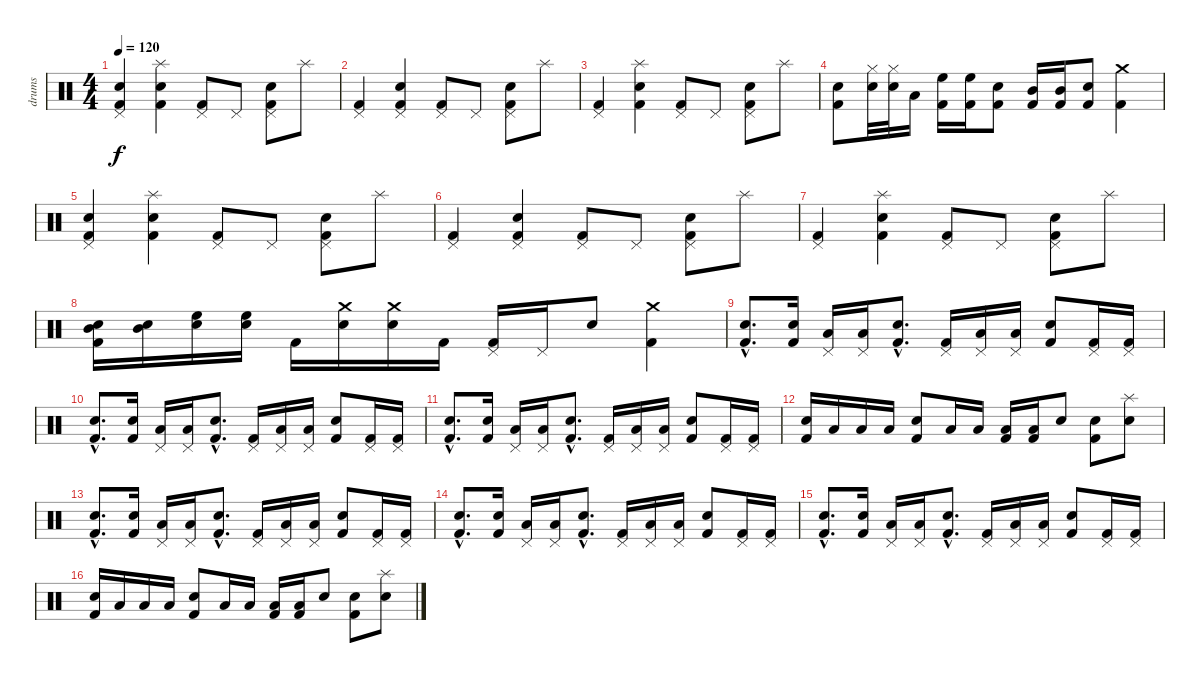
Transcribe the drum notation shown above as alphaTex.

\track ("drums" "drums") {instrument percussion}
\staff {score}
\articulation defaults
\ts (4 4)
\tempo 120
\clef neutral
\ks c
("Pedal Hi-Hat (hit)" "Electric Snare (hit)" "Kick (hit) 2").4{dy f} ("Splash (hit)" "Electric Snare (hit)" "Kick (hit) 2").4 ("Pedal Hi-Hat (hit)" "Kick (hit) 2").8 "Pedal Hi-Hat (hit)".8 ("Pedal Hi-Hat (hit)" "Electric Snare (hit)" "Kick (hit) 2").8 "Splash (hit)".8 |
("Pedal Hi-Hat (hit)" "Kick (hit) 2").4 ("Pedal Hi-Hat (hit)" "Electric Snare (hit)" "Kick (hit) 2").4 ("Pedal Hi-Hat (hit)" "Kick (hit) 2").8 "Pedal Hi-Hat (hit)".8 ("Pedal Hi-Hat (hit)" "Electric Snare (hit)" "Kick (hit) 2").8 "Splash (hit)".8 |
("Pedal Hi-Hat (hit)" "Kick (hit) 2").4 ("Splash (hit)" "Electric Snare (hit)" "Kick (hit) 2").4 ("Pedal Hi-Hat (hit)" "Kick (hit) 2").8 "Pedal Hi-Hat (hit)".8 ("Pedal Hi-Hat (hit)" "Electric Snare (hit)" "Kick (hit) 2").8 "Splash (hit)".8 |
("Electric Snare (hit)" "Kick (hit) 2").8 ("Hi-Hat (closed)" "Electric Snare (hit)").32 ("Hi-Hat (closed)" "Electric Snare (hit)").32 "Low Tom (hit)".16 ("High Floor Tom (hit)" "Kick (hit) 2").16 ("High Floor Tom (hit)" "Kick (hit) 2").16 ("Electric Snare (hit)" "Kick (hit) 2").8 ("Mid Tom (hit)" "Kick (hit) 2").16 ("Mid Tom (hit)" "Kick (hit) 2").16 ("Electric Snare (hit)" "Kick (hit) 2").8 ("Crash medium (hit)" "Kick (hit) 2").4 |
("Pedal Hi-Hat (hit)" "Electric Snare (hit)" "Kick (hit) 2").4 ("Splash (hit)" "Electric Snare (hit)" "Kick (hit) 2").4 ("Pedal Hi-Hat (hit)" "Kick (hit) 2").8 "Pedal Hi-Hat (hit)".8 ("Pedal Hi-Hat (hit)" "Electric Snare (hit)" "Kick (hit) 2").8 "Splash (hit)".8 |
("Pedal Hi-Hat (hit)" "Kick (hit) 2").4 ("Pedal Hi-Hat (hit)" "Electric Snare (hit)" "Kick (hit) 2").4 ("Pedal Hi-Hat (hit)" "Kick (hit) 2").8 "Pedal Hi-Hat (hit)".8 ("Pedal Hi-Hat (hit)" "Electric Snare (hit)" "Kick (hit) 2").8 "Splash (hit)".8 |
("Pedal Hi-Hat (hit)" "Kick (hit) 2").4 ("Splash (hit)" "Electric Snare (hit)" "Kick (hit) 2").4 ("Pedal Hi-Hat (hit)" "Kick (hit) 2").8 "Pedal Hi-Hat (hit)".8 ("Pedal Hi-Hat (hit)" "Electric Snare (hit)" "Kick (hit) 2").8 "Splash (hit)".8 |
("Mid Tom (hit)" "Electric Snare (hit)" "Kick (hit) 2").16 ("Mid Tom (hit)" "Electric Snare (hit)").16 ("High Floor Tom (hit)" "Electric Snare (hit)").16 ("High Floor Tom (hit)" "Electric Snare (hit)").16 "Kick (hit) 2".16 ("Crash medium (hit)" "Electric Snare (hit)").16 ("Crash medium (hit)" "Electric Snare (hit)").16 "Kick (hit) 2".16 ("Pedal Hi-Hat (hit)" "Kick (hit) 2").16 "Pedal Hi-Hat (hit)".16 "Electric Snare (hit)".8 ("Crash medium (hit)" "Kick (hit) 2").4 |
("Electric Snare (hit)"{hac} "Kick (hit) 2"{hac}).8{d} ("Electric Snare (hit)" "Kick (hit) 2").16 ("Pedal Hi-Hat (hit)" "Low Tom (hit)").16 ("Pedal Hi-Hat (hit)" "Low Tom (hit)").16 ("Electric Snare (hit)"{hac} "Kick (hit) 2"{hac}).8{d} ("Pedal Hi-Hat (hit)" "Kick (hit) 2").16 ("Pedal Hi-Hat (hit)" "Low Tom (hit)").16 ("Pedal Hi-Hat (hit)" "Low Tom (hit)").16 ("Electric Snare (hit)" "Kick (hit) 2").8 ("Pedal Hi-Hat (hit)" "Kick (hit) 2").16 ("Pedal Hi-Hat (hit)" "Kick (hit) 2").16 |
("Electric Snare (hit)"{hac} "Kick (hit) 2"{hac}).8{d} ("Electric Snare (hit)" "Kick (hit) 2").16 ("Pedal Hi-Hat (hit)" "Low Tom (hit)").16 ("Pedal Hi-Hat (hit)" "Low Tom (hit)").16 ("Electric Snare (hit)"{hac} "Kick (hit) 2"{hac}).8{d} ("Pedal Hi-Hat (hit)" "Kick (hit) 2").16 ("Pedal Hi-Hat (hit)" "Low Tom (hit)").16 ("Pedal Hi-Hat (hit)" "Low Tom (hit)").16 ("Electric Snare (hit)" "Kick (hit) 2").8 ("Pedal Hi-Hat (hit)" "Kick (hit) 2").16 ("Pedal Hi-Hat (hit)" "Kick (hit) 2").16 |
("Electric Snare (hit)"{hac} "Kick (hit) 2"{hac}).8{d} ("Electric Snare (hit)" "Kick (hit) 2").16 ("Pedal Hi-Hat (hit)" "Low Tom (hit)").16 ("Pedal Hi-Hat (hit)" "Low Tom (hit)").16 ("Electric Snare (hit)"{hac} "Kick (hit) 2"{hac}).8{d} ("Pedal Hi-Hat (hit)" "Kick (hit) 2").16 ("Pedal Hi-Hat (hit)" "Low Tom (hit)").16 ("Pedal Hi-Hat (hit)" "Low Tom (hit)").16 ("Electric Snare (hit)" "Kick (hit) 2").8 ("Pedal Hi-Hat (hit)" "Kick (hit) 2").16 ("Pedal Hi-Hat (hit)" "Kick (hit) 2").16 |
("Electric Snare (hit)" "Kick (hit) 2").16 "Low Tom (hit)".16 "Low Tom (hit)".16 "Low Tom (hit)".16 ("Electric Snare (hit)" "Kick (hit) 2").8 "Low Tom (hit)".16 "Low Tom (hit)".16 ("Low Tom (hit)" "Kick (hit) 2").16 ("Low Tom (hit)" "Kick (hit) 2").16 "Electric Snare (hit)".8 ("Electric Snare (hit)" "Kick (hit) 2").8 ("Splash (hit)" "Electric Snare (hit)").8 |
("Electric Snare (hit)"{hac} "Kick (hit) 2"{hac}).8{d} ("Electric Snare (hit)" "Kick (hit) 2").16 ("Pedal Hi-Hat (hit)" "Low Tom (hit)").16 ("Pedal Hi-Hat (hit)" "Low Tom (hit)").16 ("Electric Snare (hit)"{hac} "Kick (hit) 2"{hac}).8{d} ("Pedal Hi-Hat (hit)" "Kick (hit) 2").16 ("Pedal Hi-Hat (hit)" "Low Tom (hit)").16 ("Pedal Hi-Hat (hit)" "Low Tom (hit)").16 ("Electric Snare (hit)" "Kick (hit) 2").8 ("Pedal Hi-Hat (hit)" "Kick (hit) 2").16 ("Pedal Hi-Hat (hit)" "Kick (hit) 2").16 |
("Electric Snare (hit)"{hac} "Kick (hit) 2"{hac}).8{d} ("Electric Snare (hit)" "Kick (hit) 2").16 ("Pedal Hi-Hat (hit)" "Low Tom (hit)").16 ("Pedal Hi-Hat (hit)" "Low Tom (hit)").16 ("Electric Snare (hit)"{hac} "Kick (hit) 2"{hac}).8{d} ("Pedal Hi-Hat (hit)" "Kick (hit) 2").16 ("Pedal Hi-Hat (hit)" "Low Tom (hit)").16 ("Pedal Hi-Hat (hit)" "Low Tom (hit)").16 ("Electric Snare (hit)" "Kick (hit) 2").8 ("Pedal Hi-Hat (hit)" "Kick (hit) 2").16 ("Pedal Hi-Hat (hit)" "Kick (hit) 2").16 |
("Electric Snare (hit)"{hac} "Kick (hit) 2"{hac}).8{d} ("Electric Snare (hit)" "Kick (hit) 2").16 ("Pedal Hi-Hat (hit)" "Low Tom (hit)").16 ("Pedal Hi-Hat (hit)" "Low Tom (hit)").16 ("Electric Snare (hit)"{hac} "Kick (hit) 2"{hac}).8{d} ("Pedal Hi-Hat (hit)" "Kick (hit) 2").16 ("Pedal Hi-Hat (hit)" "Low Tom (hit)").16 ("Pedal Hi-Hat (hit)" "Low Tom (hit)").16 ("Electric Snare (hit)" "Kick (hit) 2").8 ("Pedal Hi-Hat (hit)" "Kick (hit) 2").16 ("Pedal Hi-Hat (hit)" "Kick (hit) 2").16 |
("Electric Snare (hit)" "Kick (hit) 2").16 "Low Tom (hit)".16 "Low Tom (hit)".16 "Low Tom (hit)".16 ("Electric Snare (hit)" "Kick (hit) 2").8 "Low Tom (hit)".16 "Low Tom (hit)".16 ("Low Tom (hit)" "Kick (hit) 2").16 ("Low Tom (hit)" "Kick (hit) 2").16 "Electric Snare (hit)".8 ("Electric Snare (hit)" "Kick (hit) 2").8 ("Splash (hit)" "Electric Snare (hit)").8
